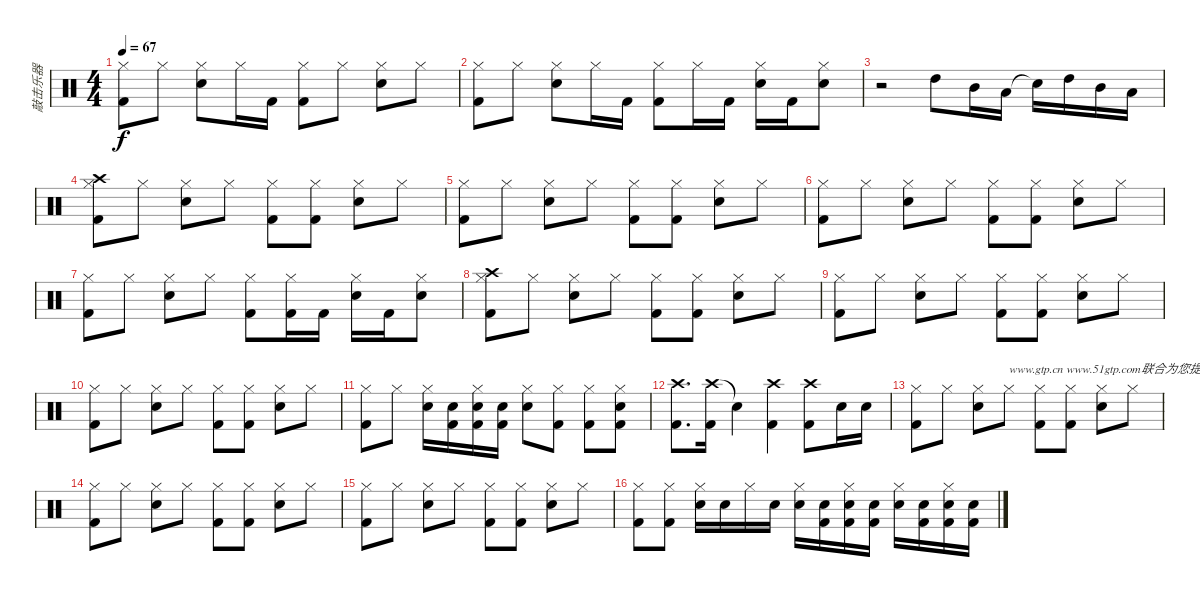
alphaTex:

\track ("敲击乐器" "敲击乐器") {instrument percussion}
\staff {score}
\articulation defaults
\ts (4 4)
\tempo 67
\clef neutral
\ks c
("Hi-Hat (closed)" "Kick (hit) 2").8{dy f} "Hi-Hat (closed)".8 ("Hi-Hat (closed)" "Electric Snare (hit)").8 "Hi-Hat (closed)".16 "Kick (hit) 2".16 ("Hi-Hat (closed)" "Kick (hit) 2").8 "Hi-Hat (closed)".8 ("Hi-Hat (closed)" "Electric Snare (hit)").8 "Hi-Hat (closed)".8 |
("Hi-Hat (closed)" "Kick (hit) 2").8 "Hi-Hat (closed)".8 ("Hi-Hat (closed)" "Electric Snare (hit)").8 "Hi-Hat (closed)".16 "Kick (hit) 2".16 ("Hi-Hat (closed)" "Kick (hit) 2").8 "Hi-Hat (closed)".16 "Kick (hit) 2".16 ("Hi-Hat (closed)" "Electric Snare (hit)").16 "Kick (hit) 2".16 ("Hi-Hat (closed)" "Electric Snare (hit)").8 |
r.2 "High Tom (hit)".8 "Mid Tom (hit)".16 "Low Tom (hit)".16 "Snare (hit)"{t}.16 "High Tom (hit)".16 "Mid Tom (hit)".16 "Low Tom (hit)".16 |
("Hi-Hat (closed)" "Kick (hit) 2" "Crash high (hit)").8 "Hi-Hat (closed)".8 ("Hi-Hat (closed)" "Electric Snare (hit)").8 "Hi-Hat (closed)".8 ("Hi-Hat (closed)" "Kick (hit) 2").8 ("Hi-Hat (closed)" "Kick (hit) 2").8 ("Hi-Hat (closed)" "Electric Snare (hit)").8 "Hi-Hat (closed)".8 |
("Hi-Hat (closed)" "Kick (hit) 2").8 "Hi-Hat (closed)".8 ("Hi-Hat (closed)" "Electric Snare (hit)").8 "Hi-Hat (closed)".8 ("Hi-Hat (closed)" "Kick (hit) 2").8 ("Hi-Hat (closed)" "Kick (hit) 2").8 ("Hi-Hat (closed)" "Electric Snare (hit)").8 "Hi-Hat (closed)".8 |
("Hi-Hat (closed)" "Kick (hit) 2").8 "Hi-Hat (closed)".8 ("Hi-Hat (closed)" "Electric Snare (hit)").8 "Hi-Hat (closed)".8 ("Hi-Hat (closed)" "Kick (hit) 2").8 ("Hi-Hat (closed)" "Kick (hit) 2").8 ("Hi-Hat (closed)" "Electric Snare (hit)").8 "Hi-Hat (closed)".8 |
("Hi-Hat (closed)" "Kick (hit) 2").8 "Hi-Hat (closed)".8 ("Hi-Hat (closed)" "Electric Snare (hit)").8 "Hi-Hat (closed)".8 ("Hi-Hat (closed)" "Kick (hit) 2").8 ("Hi-Hat (closed)" "Kick (hit) 2").16 "Kick (hit) 2".16 ("Hi-Hat (closed)" "Electric Snare (hit)").16 "Kick (hit) 2".16 ("Hi-Hat (closed)" "Electric Snare (hit)").8 |
("Hi-Hat (closed)" "Kick (hit) 2" "Crash high (hit)").8 "Hi-Hat (closed)".8 ("Hi-Hat (closed)" "Electric Snare (hit)").8 "Hi-Hat (closed)".8 ("Hi-Hat (closed)" "Kick (hit) 2").8 ("Hi-Hat (closed)" "Kick (hit) 2").8 ("Hi-Hat (closed)" "Electric Snare (hit)").8 "Hi-Hat (closed)".8 |
("Hi-Hat (closed)" "Kick (hit) 2").8 "Hi-Hat (closed)".8 ("Hi-Hat (closed)" "Electric Snare (hit)").8 "Hi-Hat (closed)".8 ("Hi-Hat (closed)" "Kick (hit) 2").8 ("Hi-Hat (closed)" "Kick (hit) 2").8 ("Hi-Hat (closed)" "Electric Snare (hit)").8 "Hi-Hat (closed)".8 |
("Hi-Hat (closed)" "Kick (hit) 2").8 "Hi-Hat (closed)".8 ("Hi-Hat (closed)" "Electric Snare (hit)").8 "Hi-Hat (closed)".8 ("Hi-Hat (closed)" "Kick (hit) 2").8 ("Hi-Hat (closed)" "Kick (hit) 2").8 ("Hi-Hat (closed)" "Electric Snare (hit)").8 "Hi-Hat (closed)".8 |
("Hi-Hat (closed)" "Kick (hit) 2").8 "Hi-Hat (closed)".8 ("Hi-Hat (closed)" "Electric Snare (hit)").16 ("Electric Snare (hit)" "Kick (hit) 2").16 ("Hi-Hat (closed)" "Electric Snare (hit)" "Kick (hit) 2").16 ("Electric Snare (hit)" "Kick (hit) 2").16 ("Hi-Hat (closed)" "Electric Snare (hit)").8 ("Hi-Hat (closed)" "Kick (hit) 2").8 ("Hi-Hat (closed)" "Kick (hit) 2").8 ("Hi-Hat (closed)" "Kick (hit) 2" "Electric Snare (hit)").8 |
("Crash high (hit)" "Kick (hit) 2").8{d} ("Crash high (hit)" "Kick (hit) 2").16 "Snare (hit)"{t}.4 ("Crash high (hit)" "Kick (hit) 2").4 ("Crash high (hit)" "Kick (hit) 2").8 "Electric Snare (hit)".16 "Electric Snare (hit)".16 |
("Hi-Hat (closed)" "Kick (hit) 2").8 "Hi-Hat (closed)".8 ("Hi-Hat (closed)" "Electric Snare (hit)").8 "Hi-Hat (closed)".8{txt "www.gtp.cn www.51gtp.com联合为您提供优秀的GTP!"} ("Hi-Hat (closed)" "Kick (hit) 2").8 ("Hi-Hat (closed)" "Kick (hit) 2").8 ("Hi-Hat (closed)" "Electric Snare (hit)").8 "Hi-Hat (closed)".8 |
("Hi-Hat (closed)" "Kick (hit) 2").8 "Hi-Hat (closed)".8 ("Hi-Hat (closed)" "Electric Snare (hit)").8 "Hi-Hat (closed)".8 ("Hi-Hat (closed)" "Kick (hit) 2").8 ("Hi-Hat (closed)" "Kick (hit) 2").8 ("Hi-Hat (closed)" "Electric Snare (hit)").8 "Hi-Hat (closed)".8 |
("Hi-Hat (closed)" "Kick (hit) 2").8 "Hi-Hat (closed)".8 ("Hi-Hat (closed)" "Electric Snare (hit)").8 "Hi-Hat (closed)".8 ("Hi-Hat (closed)" "Kick (hit) 2").8 ("Hi-Hat (closed)" "Kick (hit) 2").8 ("Hi-Hat (closed)" "Electric Snare (hit)").8 "Hi-Hat (closed)".8 |
("Hi-Hat (closed)" "Kick (hit) 2").8 ("Hi-Hat (closed)" "Kick (hit) 2").8 ("Hi-Hat (closed)" "Electric Snare (hit)").16 "Electric Snare (hit)".16 "Hi-Hat (closed)".16 "Electric Snare (hit)".16 ("Hi-Hat (closed)" "Electric Snare (hit)").16 ("Electric Snare (hit)" "Kick (hit) 2").16 ("Hi-Hat (closed)" "Electric Snare (hit)" "Kick (hit) 2").16 ("Electric Snare (hit)" "Kick (hit) 2").16 ("Hi-Hat (closed)" "Electric Snare (hit)").16 ("Electric Snare (hit)" "Kick (hit) 2").16 ("Hi-Hat (closed)" "Electric Snare (hit)" "Kick (hit) 2").16 ("Electric Snare (hit)" "Kick (hit) 2").16
